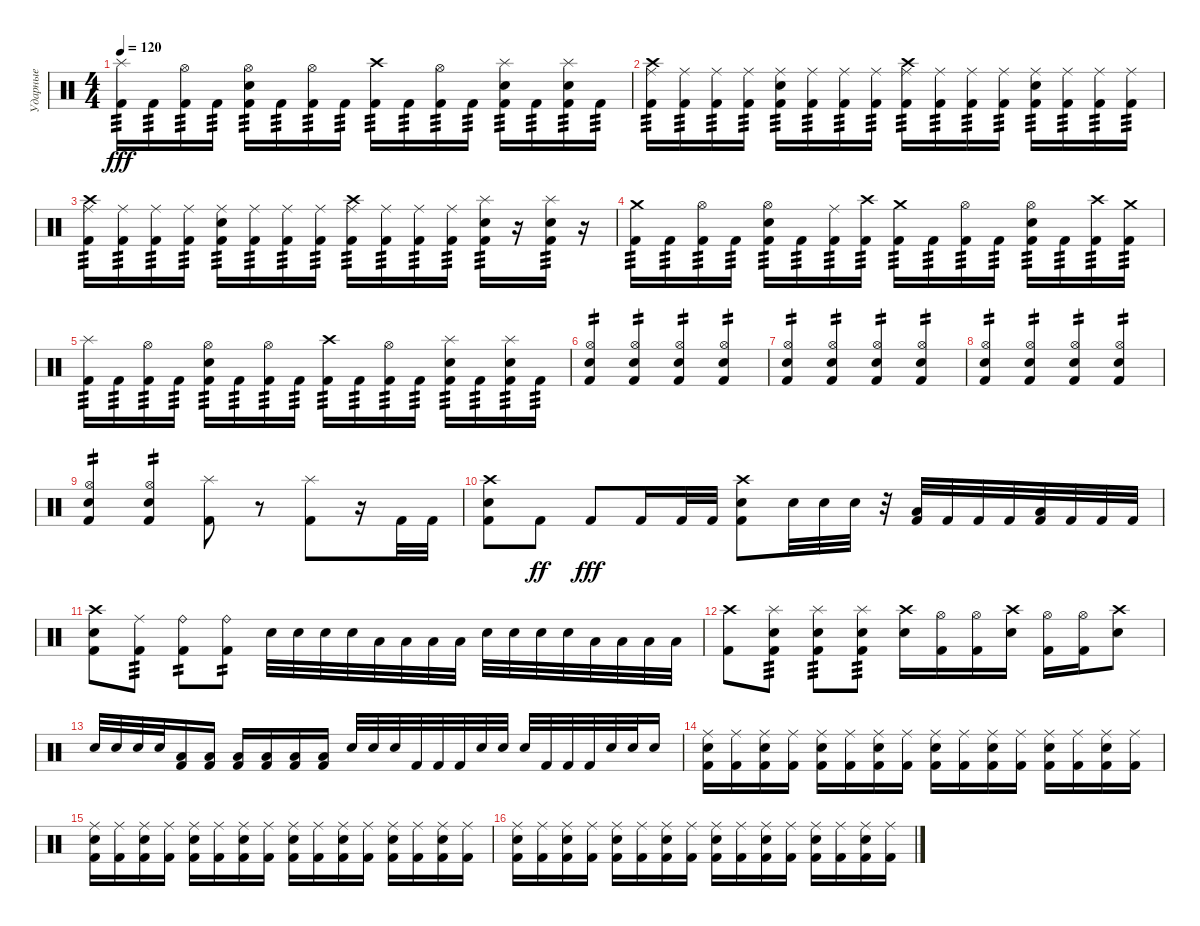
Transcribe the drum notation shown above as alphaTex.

\track ("Ударные" "Ударные") {instrument percussion}
\staff {score}
\articulation defaults
\ts (4 4)
\tempo 120
\clef neutral
\ks c
("Splash (hit)" "Kick (hit) 2").16{tp 3 dy fff} "Kick (hit) 2".16{tp 3} ("Hi-Hat (open)" "Kick (hit) 2").16{tp 3} "Kick (hit) 2".16{tp 3} ("Hi-Hat (open)" "Snare (hit) 2" "Kick (hit) 2").16{tp 3} "Kick (hit) 2".16{tp 3} ("Hi-Hat (open)" "Kick (hit) 2").16{tp 3} "Kick (hit) 2".16{tp 3} ("Crash high (hit)" "Kick (hit) 2").16{tp 3} "Kick (hit) 2".16{tp 3} ("Hi-Hat (open)" "Kick (hit) 2").16{tp 3} "Kick (hit) 2".16{tp 3} ("Splash (hit)" "Snare (hit) 2" "Kick (hit) 2").16{tp 3} "Kick (hit) 2".16{tp 3} ("Splash (hit)" "Snare (hit) 2" "Kick (hit) 2").16{tp 3} "Kick (hit) 2".16{tp 3} |
("Ride (middle)" "Crash high (hit)" "Kick (hit) 2").16{tp 3} ("Ride (middle)" "Kick (hit) 2").16{tp 3} ("Ride (middle)" "Kick (hit) 2").16{tp 3} ("Ride (middle)" "Kick (hit) 2").16{tp 3} ("Ride (middle)" "Snare (hit) 2" "Kick (hit) 2").16{tp 3} ("Ride (middle)" "Kick (hit) 2").16{tp 3} ("Ride (middle)" "Kick (hit) 2").16{tp 3} ("Ride (middle)" "Kick (hit) 2").16{tp 3} ("Ride (middle)" "Crash high (hit)" "Kick (hit) 2").16{tp 3} ("Ride (middle)" "Kick (hit) 2").16{tp 3} ("Ride (middle)" "Kick (hit) 2").16{tp 3} ("Ride (middle)" "Kick (hit) 2").16{tp 3} ("Ride (middle)" "Snare (hit) 2" "Kick (hit) 2").16{tp 3} ("Ride (middle)" "Kick (hit) 2").16{tp 3} ("Ride (middle)" "Kick (hit) 2").16{tp 3} ("Ride (middle)" "Kick (hit) 2").16{tp 3} |
("Ride (middle)" "Crash high (hit)" "Kick (hit) 2").16{tp 3} ("Ride (middle)" "Kick (hit) 2").16{tp 3} ("Ride (middle)" "Kick (hit) 2").16{tp 3} ("Ride (middle)" "Kick (hit) 2").16{tp 3} ("Ride (middle)" "Snare (hit) 2" "Kick (hit) 2").16{tp 3} ("Ride (middle)" "Kick (hit) 2").16{tp 3} ("Ride (middle)" "Kick (hit) 2").16{tp 3} ("Ride (middle)" "Kick (hit) 2").16{tp 3} ("Ride (middle)" "Crash high (hit)" "Kick (hit) 2").16{tp 3} ("Ride (middle)" "Kick (hit) 2").16{tp 3} ("Ride (middle)" "Kick (hit) 2").16{tp 3} ("Ride (middle)" "Kick (hit) 2").16{tp 3} ("Splash (hit)" "Snare (hit) 2" "Kick (hit) 2").16{tp 3} r.16 ("Splash (hit)" "Snare (hit) 2" "Kick (hit) 2").16{tp 3} r.16 |
("Crash medium (hit)" "Kick (hit) 2").16{tp 3} "Kick (hit) 2".16{tp 3} ("Hi-Hat (open)" "Kick (hit) 2").16{tp 3} "Kick (hit) 2".16{tp 3} ("Hi-Hat (open)" "Snare (hit) 2" "Kick (hit) 2").16{tp 3} "Kick (hit) 2".16{tp 3} ("Ride (middle)" "Kick (hit) 2").16{tp 3} ("Crash high (hit)" "Kick (hit) 2").16{tp 3} ("Crash medium (hit)" "Kick (hit) 2").16{tp 3} "Kick (hit) 2".16{tp 3} ("Hi-Hat (open)" "Kick (hit) 2").16{tp 3} "Kick (hit) 2".16{tp 3} ("Hi-Hat (open)" "Snare (hit) 2" "Kick (hit) 2").16{tp 3} "Kick (hit) 2".16{tp 3} ("Crash high (hit)" "Kick (hit) 2").16{tp 3} ("Crash medium (hit)" "Kick (hit) 2").16{tp 3} |
("Splash (hit)" "Kick (hit) 2").16{tp 3} "Kick (hit) 2".16{tp 3} ("Hi-Hat (open)" "Kick (hit) 2").16{tp 3} "Kick (hit) 2".16{tp 3} ("Hi-Hat (open)" "Snare (hit) 2" "Kick (hit) 2").16{tp 3} "Kick (hit) 2".16{tp 3} ("Hi-Hat (open)" "Kick (hit) 2").16{tp 3} "Kick (hit) 2".16{tp 3} ("Crash high (hit)" "Kick (hit) 2").16{tp 3} "Kick (hit) 2".16{tp 3} ("Hi-Hat (open)" "Kick (hit) 2").16{tp 3} "Kick (hit) 2".16{tp 3} ("Splash (hit)" "Snare (hit) 2" "Kick (hit) 2").16{tp 3} "Kick (hit) 2".16{tp 3} ("Splash (hit)" "Snare (hit) 2" "Kick (hit) 2").16{tp 3} "Kick (hit) 2".16{tp 3} |
("Hi-Hat (open)" "Snare (hit) 2" "Kick (hit) 2").4{tp 2} ("Hi-Hat (open)" "Snare (hit) 2" "Kick (hit) 2").4{tp 2} ("Hi-Hat (open)" "Snare (hit) 2" "Kick (hit) 2").4{tp 2} ("Hi-Hat (open)" "Snare (hit) 2" "Kick (hit) 2").4{tp 2} |
("Hi-Hat (open)" "Snare (hit) 2" "Kick (hit) 2").4{tp 2} ("Hi-Hat (open)" "Snare (hit) 2" "Kick (hit) 2").4{tp 2} ("Hi-Hat (open)" "Snare (hit) 2" "Kick (hit) 2").4{tp 2} ("Hi-Hat (open)" "Snare (hit) 2" "Kick (hit) 2").4{tp 2} |
("Hi-Hat (open)" "Snare (hit) 2" "Kick (hit) 2").4{tp 2} ("Hi-Hat (open)" "Snare (hit) 2" "Kick (hit) 2").4{tp 2} ("Hi-Hat (open)" "Snare (hit) 2" "Kick (hit) 2").4{tp 2} ("Hi-Hat (open)" "Snare (hit) 2" "Kick (hit) 2").4{tp 2} |
("Hi-Hat (open)" "Snare (hit) 2" "Kick (hit) 2").4{tp 2} ("Hi-Hat (open)" "Snare (hit) 2" "Kick (hit) 2").4{tp 2} ("Splash (hit)" "Kick (hit) 2").8 r.8 ("Splash (hit)" "Kick (hit) 2").8 r.16 "Kick (hit) 2".32 "Kick (hit) 2".32 |
("Crash high (hit)" "Snare (hit) 2" "Kick (hit) 2").8 "Kick (hit) 2".8{dy ff} "Kick (hit) 2".8{dy fff} "Kick (hit) 2".16 "Kick (hit) 2".32 "Kick (hit) 2".32 ("Crash high (hit)" "Snare (hit) 2" "Kick (hit) 2").8 "Snare (hit) 2".32 "Snare (hit) 2".32 "Snare (hit) 2".32 r.32 ("Low Tom (hit)" "Kick (hit) 2").32 "Kick (hit) 2".32 "Kick (hit) 2".32 "Kick (hit) 2".32 ("Low Floor Tom (hit)" "Kick (hit) 2").32 "Kick (hit) 2".32 "Kick (hit) 2".32 "Kick (hit) 2".32 |
("Crash high (hit)" "Snare (hit) 2" "Kick (hit) 2").8 ("Ride (middle)" "Kick (hit) 2").8{tp 3} ("Ride (bell)" "Kick (hit) 2").8{tp 2} ("Ride (bell)" "Kick (hit) 2").8{tp 2} "Snare (hit) 2".32 "Snare (hit) 2".32 "Snare (hit) 2".32 "Snare (hit) 2".32 "Low Tom (hit)".32 "Low Tom (hit)".32 "Low Tom (hit)".32 "Low Tom (hit)".32 "Snare (hit) 2".32 "Snare (hit) 2".32 "Snare (hit) 2".32 "Snare (hit) 2".32 "Low Floor Tom (hit)".32 "Low Floor Tom (hit)".32 "Low Floor Tom (hit)".32 "Low Floor Tom (hit)".32 |
("Crash high (hit)" "Kick (hit) 2").8 ("Splash (hit)" "Snare (hit) 2" "Kick (hit) 2").8{tp 3} ("Splash (hit)" "Snare (hit) 2" "Kick (hit) 2").8{tp 3} ("Splash (hit)" "Snare (hit) 2" "Kick (hit) 2").8{tp 3} ("Crash high (hit)" "Snare (hit) 2").16 ("Hi-Hat (open)" "Kick (hit) 2").16 ("Hi-Hat (open)" "Kick (hit) 2").16 ("Crash high (hit)" "Snare (hit) 2").16 ("Hi-Hat (open)" "Kick (hit) 2").16 ("Hi-Hat (open)" "Kick (hit) 2").16 ("Crash high (hit)" "Snare (hit) 2").8 |
"Snare (hit) 2".32 "Snare (hit) 2".32 "Snare (hit) 2".32 "Snare (hit) 2".32 ("Low Tom (hit)" "Kick (hit) 2").16 ("Low Tom (hit)" "Kick (hit) 2").16 ("Low Tom (hit)" "Kick (hit) 2").16 ("Low Tom (hit)" "Kick (hit) 2").16 ("Low Floor Tom (hit)" "Kick (hit) 2").16 ("Low Floor Tom (hit)" "Kick (hit) 2").16 "Snare (hit) 2".32 "Snare (hit) 2".32 "Snare (hit) 2".32 "Kick (hit) 2".32 "Kick (hit) 2".32 "Kick (hit) 2".32 "Snare (hit) 2".32 "Snare (hit) 2".32 "Snare (hit) 2".32 "Kick (hit) 2".32 "Kick (hit) 2".32 "Kick (hit) 2".32 "Snare (hit) 2".32 "Snare (hit) 2".32 "Snare (hit) 2".16 |
("Ride (middle)" "Snare (hit) 2" "Kick (hit) 2").16 ("Ride (middle)" "Kick (hit) 2").16 ("Ride (middle)" "Snare (hit) 2" "Kick (hit) 2").16 ("Ride (middle)" "Kick (hit) 2").16 ("Ride (middle)" "Snare (hit) 2" "Kick (hit) 2").16 ("Ride (middle)" "Kick (hit) 2").16 ("Ride (middle)" "Snare (hit) 2" "Kick (hit) 2").16 ("Ride (middle)" "Kick (hit) 2").16 ("Ride (middle)" "Snare (hit) 2" "Kick (hit) 2").16 ("Ride (middle)" "Kick (hit) 2").16 ("Ride (middle)" "Snare (hit) 2" "Kick (hit) 2").16 ("Ride (middle)" "Kick (hit) 2").16 ("Ride (middle)" "Snare (hit) 2" "Kick (hit) 2").16 ("Ride (middle)" "Kick (hit) 2").16 ("Ride (middle)" "Snare (hit) 2" "Kick (hit) 2").16 ("Ride (middle)" "Kick (hit) 2").16 |
("Ride (middle)" "Snare (hit) 2" "Kick (hit) 2").16 ("Ride (middle)" "Kick (hit) 2").16 ("Ride (middle)" "Snare (hit) 2" "Kick (hit) 2").16 ("Ride (middle)" "Kick (hit) 2").16 ("Ride (middle)" "Snare (hit) 2" "Kick (hit) 2").16 ("Ride (middle)" "Kick (hit) 2").16 ("Ride (middle)" "Snare (hit) 2" "Kick (hit) 2").16 ("Ride (middle)" "Kick (hit) 2").16 ("Ride (middle)" "Snare (hit) 2" "Kick (hit) 2").16 ("Ride (middle)" "Kick (hit) 2").16 ("Ride (middle)" "Snare (hit) 2" "Kick (hit) 2").16 ("Ride (middle)" "Kick (hit) 2").16 ("Ride (middle)" "Snare (hit) 2" "Kick (hit) 2").16 ("Ride (middle)" "Kick (hit) 2").16 ("Ride (middle)" "Snare (hit) 2" "Kick (hit) 2").16 ("Ride (middle)" "Kick (hit) 2").16 |
("Ride (middle)" "Snare (hit) 2" "Kick (hit) 2").16 ("Ride (middle)" "Kick (hit) 2").16 ("Ride (middle)" "Snare (hit) 2" "Kick (hit) 2").16 ("Ride (middle)" "Kick (hit) 2").16 ("Ride (middle)" "Snare (hit) 2" "Kick (hit) 2").16 ("Ride (middle)" "Kick (hit) 2").16 ("Ride (middle)" "Snare (hit) 2" "Kick (hit) 2").16 ("Ride (middle)" "Kick (hit) 2").16 ("Ride (middle)" "Snare (hit) 2" "Kick (hit) 2").16 ("Ride (middle)" "Kick (hit) 2").16 ("Ride (middle)" "Snare (hit) 2" "Kick (hit) 2").16 ("Ride (middle)" "Kick (hit) 2").16 ("Ride (middle)" "Snare (hit) 2" "Kick (hit) 2").16 ("Ride (middle)" "Kick (hit) 2").16 ("Ride (middle)" "Snare (hit) 2" "Kick (hit) 2").16 ("Ride (middle)" "Kick (hit) 2").16
